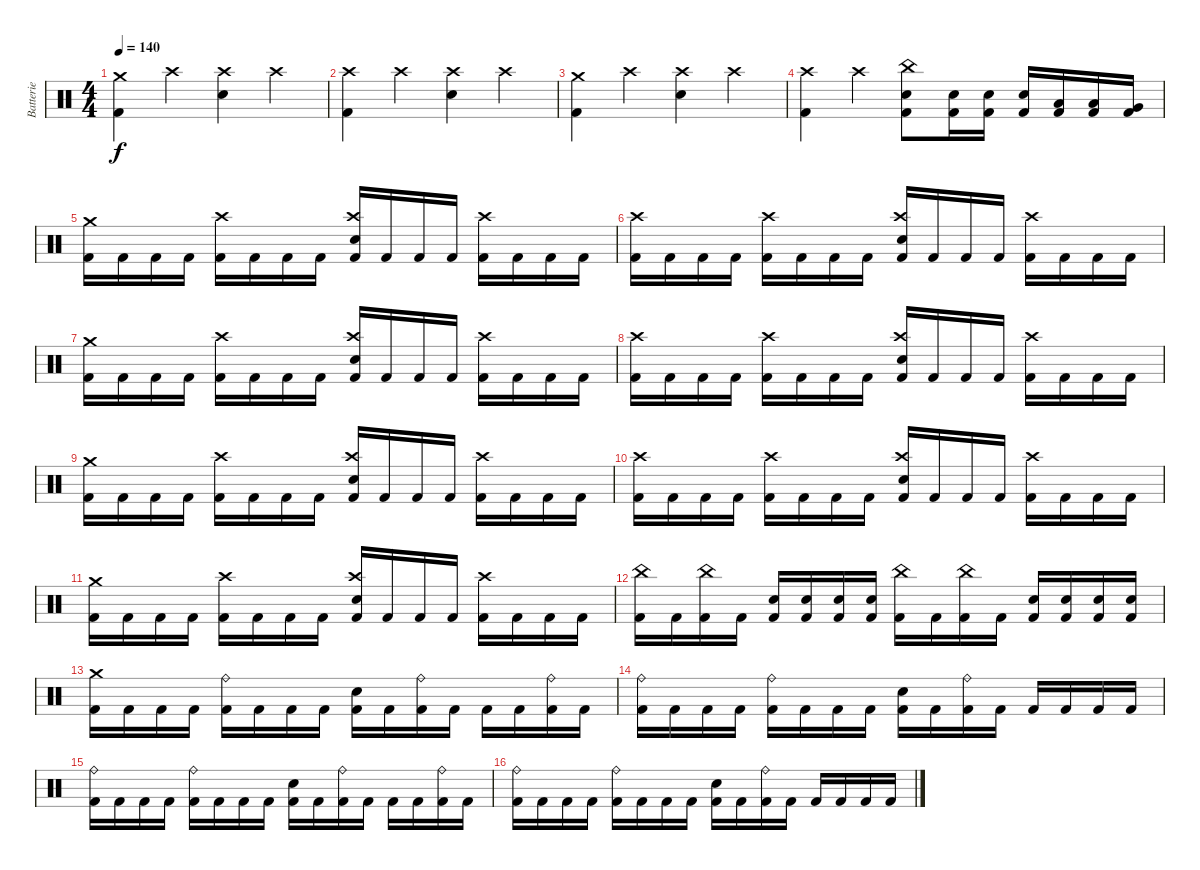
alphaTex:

\track ("Batterie" "Batterie") {instrument percussion}
\staff {score}
\articulation defaults
\ts (4 4)
\tempo 140
\clef neutral
\ks c
("Crash medium (hit)" "Kick (hit) 2").4{dy f} "Crash high (hit)".4 ("Crash high (hit)" "Electric Snare (hit)").4 "Crash high (hit)".4 |
("Crash high (hit)" "Kick (hit) 2").4 "Crash high (hit)".4 ("Crash high (hit)" "Electric Snare (hit)").4 "Crash high (hit)".4 |
("Crash medium (hit)" "Kick (hit) 2").4 "Crash high (hit)".4 ("Crash high (hit)" "Electric Snare (hit)").4 "Crash high (hit)".4 |
("Crash high (hit)" "Kick (hit) 2").4 "Crash high (hit)".4 ("China (hit)" "Electric Snare (hit)" "Kick (hit) 2").8 ("Electric Snare (hit)" "Kick (hit) 2").16 ("Electric Snare (hit)" "Kick (hit) 2").16 ("Electric Snare (hit)" "Kick (hit) 2").16 ("Low Tom (hit)" "Kick (hit) 2").16 ("Low Tom (hit)" "Kick (hit) 2").16 ("Very Low Tom (hit)" "Kick (hit) 2").16 |
("Crash medium (hit)" "Kick (hit) 2").16 "Kick (hit) 2".16 "Kick (hit) 2".16 "Kick (hit) 2".16 ("Crash high (hit)" "Kick (hit) 2").16 "Kick (hit) 2".16 "Kick (hit) 2".16 "Kick (hit) 2".16 ("Crash high (hit)" "Electric Snare (hit)" "Kick (hit) 2").16 "Kick (hit) 2".16 "Kick (hit) 2".16 "Kick (hit) 2".16 ("Crash high (hit)" "Kick (hit) 2").16 "Kick (hit) 2".16 "Kick (hit) 2".16 "Kick (hit) 2".16 |
("Crash high (hit)" "Kick (hit) 2").16 "Kick (hit) 2".16 "Kick (hit) 2".16 "Kick (hit) 2".16 ("Crash high (hit)" "Kick (hit) 2").16 "Kick (hit) 2".16 "Kick (hit) 2".16 "Kick (hit) 2".16 ("Crash high (hit)" "Electric Snare (hit)" "Kick (hit) 2").16 "Kick (hit) 2".16 "Kick (hit) 2".16 "Kick (hit) 2".16 ("Crash high (hit)" "Kick (hit) 2").16 "Kick (hit) 2".16 "Kick (hit) 2".16 "Kick (hit) 2".16 |
("Crash medium (hit)" "Kick (hit) 2").16 "Kick (hit) 2".16 "Kick (hit) 2".16 "Kick (hit) 2".16 ("Crash high (hit)" "Kick (hit) 2").16 "Kick (hit) 2".16 "Kick (hit) 2".16 "Kick (hit) 2".16 ("Crash high (hit)" "Electric Snare (hit)" "Kick (hit) 2").16 "Kick (hit) 2".16 "Kick (hit) 2".16 "Kick (hit) 2".16 ("Crash high (hit)" "Kick (hit) 2").16 "Kick (hit) 2".16 "Kick (hit) 2".16 "Kick (hit) 2".16 |
("Crash high (hit)" "Kick (hit) 2").16 "Kick (hit) 2".16 "Kick (hit) 2".16 "Kick (hit) 2".16 ("Crash high (hit)" "Kick (hit) 2").16 "Kick (hit) 2".16 "Kick (hit) 2".16 "Kick (hit) 2".16 ("Crash high (hit)" "Electric Snare (hit)" "Kick (hit) 2").16 "Kick (hit) 2".16 "Kick (hit) 2".16 "Kick (hit) 2".16 ("Crash high (hit)" "Kick (hit) 2").16 "Kick (hit) 2".16 "Kick (hit) 2".16 "Kick (hit) 2".16 |
("Crash medium (hit)" "Kick (hit) 2").16 "Kick (hit) 2".16 "Kick (hit) 2".16 "Kick (hit) 2".16 ("Crash high (hit)" "Kick (hit) 2").16 "Kick (hit) 2".16 "Kick (hit) 2".16 "Kick (hit) 2".16 ("Crash high (hit)" "Electric Snare (hit)" "Kick (hit) 2").16 "Kick (hit) 2".16 "Kick (hit) 2".16 "Kick (hit) 2".16 ("Crash high (hit)" "Kick (hit) 2").16 "Kick (hit) 2".16 "Kick (hit) 2".16 "Kick (hit) 2".16 |
("Crash high (hit)" "Kick (hit) 2").16 "Kick (hit) 2".16 "Kick (hit) 2".16 "Kick (hit) 2".16 ("Crash high (hit)" "Kick (hit) 2").16 "Kick (hit) 2".16 "Kick (hit) 2".16 "Kick (hit) 2".16 ("Crash high (hit)" "Electric Snare (hit)" "Kick (hit) 2").16 "Kick (hit) 2".16 "Kick (hit) 2".16 "Kick (hit) 2".16 ("Crash high (hit)" "Kick (hit) 2").16 "Kick (hit) 2".16 "Kick (hit) 2".16 "Kick (hit) 2".16 |
("Crash medium (hit)" "Kick (hit) 2").16 "Kick (hit) 2".16 "Kick (hit) 2".16 "Kick (hit) 2".16 ("Crash high (hit)" "Kick (hit) 2").16 "Kick (hit) 2".16 "Kick (hit) 2".16 "Kick (hit) 2".16 ("Crash high (hit)" "Electric Snare (hit)" "Kick (hit) 2").16 "Kick (hit) 2".16 "Kick (hit) 2".16 "Kick (hit) 2".16 ("Crash high (hit)" "Kick (hit) 2").16 "Kick (hit) 2".16 "Kick (hit) 2".16 "Kick (hit) 2".16 |
("China (hit)" "Kick (hit) 2").16 "Kick (hit) 2".16 ("China (hit)" "Kick (hit) 2").16 "Kick (hit) 2".16 ("Electric Snare (hit)" "Kick (hit) 2").16 ("Electric Snare (hit)" "Kick (hit) 2").16 ("Electric Snare (hit)" "Kick (hit) 2").16 ("Electric Snare (hit)" "Kick (hit) 2").16 ("China (hit)" "Kick (hit) 2").16 "Kick (hit) 2".16 ("China (hit)" "Kick (hit) 2").16 "Kick (hit) 2".16 ("Electric Snare (hit)" "Kick (hit) 2").16 ("Electric Snare (hit)" "Kick (hit) 2").16 ("Electric Snare (hit)" "Kick (hit) 2").16 ("Electric Snare (hit)" "Kick (hit) 2").16 |
("Crash medium (hit)" "Kick (hit) 2").16 "Kick (hit) 2".16 "Kick (hit) 2".16 "Kick (hit) 2".16 ("Ride (bell)" "Kick (hit) 2").16 "Kick (hit) 2".16 "Kick (hit) 2".16 "Kick (hit) 2".16 ("Electric Snare (hit)" "Kick (hit) 2").16 "Kick (hit) 2".16 ("Ride (bell)" "Kick (hit) 2").16 "Kick (hit) 2".16 "Kick (hit) 2".16 "Kick (hit) 2".16 ("Ride (bell)" "Kick (hit) 2").16 "Kick (hit) 2".16 |
("Ride (bell)" "Kick (hit) 2").16 "Kick (hit) 2".16 "Kick (hit) 2".16 "Kick (hit) 2".16 ("Ride (bell)" "Kick (hit) 2").16 "Kick (hit) 2".16 "Kick (hit) 2".16 "Kick (hit) 2".16 ("Electric Snare (hit)" "Kick (hit) 2").16 "Kick (hit) 2".16 ("Ride (bell)" "Kick (hit) 2").16 "Kick (hit) 2".16 "Kick (hit) 2".16 "Kick (hit) 2".16 "Kick (hit) 2".16 "Kick (hit) 2".16 |
("Ride (bell)" "Kick (hit) 2").16 "Kick (hit) 2".16 "Kick (hit) 2".16 "Kick (hit) 2".16 ("Ride (bell)" "Kick (hit) 2").16 "Kick (hit) 2".16 "Kick (hit) 2".16 "Kick (hit) 2".16 ("Electric Snare (hit)" "Kick (hit) 2").16 "Kick (hit) 2".16 ("Ride (bell)" "Kick (hit) 2").16 "Kick (hit) 2".16 "Kick (hit) 2".16 "Kick (hit) 2".16 ("Ride (bell)" "Kick (hit) 2").16 "Kick (hit) 2".16 |
("Ride (bell)" "Kick (hit) 2").16 "Kick (hit) 2".16 "Kick (hit) 2".16 "Kick (hit) 2".16 ("Ride (bell)" "Kick (hit) 2").16 "Kick (hit) 2".16 "Kick (hit) 2".16 "Kick (hit) 2".16 ("Electric Snare (hit)" "Kick (hit) 2").16 "Kick (hit) 2".16 ("Ride (bell)" "Kick (hit) 2").16 "Kick (hit) 2".16 "Kick (hit) 2".16 "Kick (hit) 2".16 "Kick (hit) 2".16 "Kick (hit) 2".16
